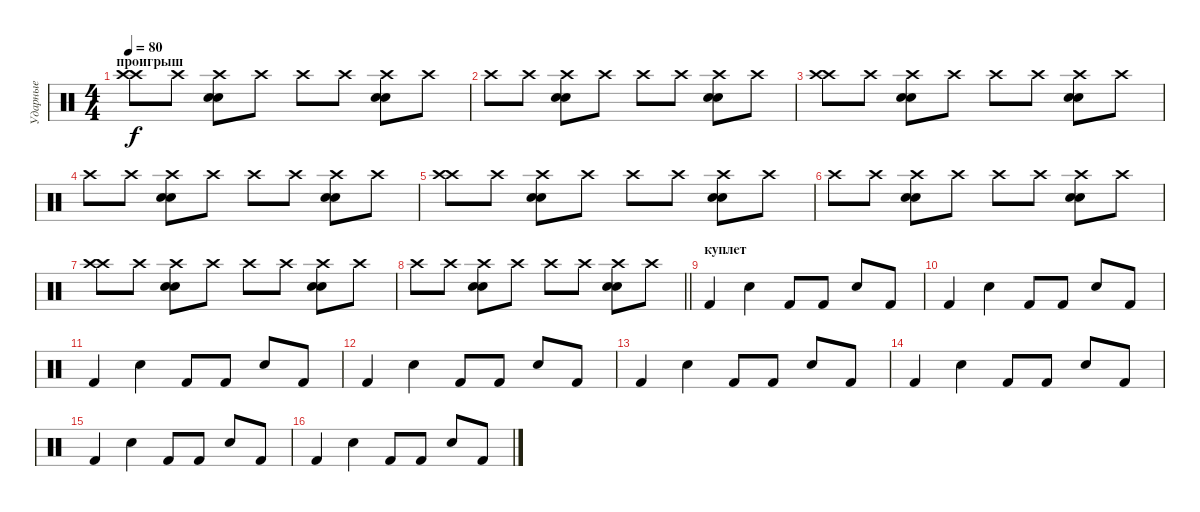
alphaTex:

\track ("Ударные" "Ударные") {instrument percussion}
\staff {score}
\articulation defaults
\ts (4 4)
\section ("" "проигрыш")
\tempo 80
\clef neutral
\ks c
("Crash high (hit)" "Crash high (hit)").8{dy f} "Crash high (hit)".8 ("Crash high (hit)" "Snare (hit) 2" "Hand Clap (hit)").8 "Crash high (hit)".8 "Crash high (hit)".8 "Crash high (hit)".8 ("Crash high (hit)" "Snare (hit) 2" "Hand Clap (hit)").8 "Crash high (hit)".8 |
"Crash high (hit)".8 "Crash high (hit)".8 ("Crash high (hit)" "Snare (hit) 2" "Hand Clap (hit)").8 "Crash high (hit)".8 "Crash high (hit)".8 "Crash high (hit)".8 ("Crash high (hit)" "Snare (hit) 2" "Hand Clap (hit)").8 "Crash high (hit)".8 |
("Crash high (hit)" "Crash high (hit)").8 "Crash high (hit)".8 ("Crash high (hit)" "Snare (hit) 2" "Hand Clap (hit)").8 "Crash high (hit)".8 "Crash high (hit)".8 "Crash high (hit)".8 ("Crash high (hit)" "Snare (hit) 2" "Hand Clap (hit)").8 "Crash high (hit)".8 |
"Crash high (hit)".8 "Crash high (hit)".8 ("Crash high (hit)" "Snare (hit) 2" "Hand Clap (hit)").8 "Crash high (hit)".8 "Crash high (hit)".8 "Crash high (hit)".8 ("Crash high (hit)" "Snare (hit) 2" "Hand Clap (hit)").8 "Crash high (hit)".8 |
("Crash high (hit)" "Crash high (hit)").8 "Crash high (hit)".8 ("Crash high (hit)" "Snare (hit) 2" "Hand Clap (hit)").8 "Crash high (hit)".8 "Crash high (hit)".8 "Crash high (hit)".8 ("Crash high (hit)" "Snare (hit) 2" "Hand Clap (hit)").8 "Crash high (hit)".8 |
"Crash high (hit)".8 "Crash high (hit)".8 ("Crash high (hit)" "Snare (hit) 2" "Hand Clap (hit)").8 "Crash high (hit)".8 "Crash high (hit)".8 "Crash high (hit)".8 ("Crash high (hit)" "Snare (hit) 2" "Hand Clap (hit)").8 "Crash high (hit)".8 |
("Crash high (hit)" "Crash high (hit)").8 "Crash high (hit)".8 ("Crash high (hit)" "Snare (hit) 2" "Hand Clap (hit)").8 "Crash high (hit)".8 "Crash high (hit)".8 "Crash high (hit)".8 ("Crash high (hit)" "Snare (hit) 2" "Hand Clap (hit)").8 "Crash high (hit)".8 |
\barLineRight lightlight "Crash high (hit)".8 "Crash high (hit)".8
("Crash high (hit)" "Snare (hit) 2" "Hand Clap (hit)").8 "Crash high (hit)".8 "Crash high (hit)".8 "Crash high (hit)".8 ("Crash high (hit)" "Snare (hit) 2" "Hand Clap (hit)").8 "Crash high (hit)".8 |
\section ("" "куплет ")
"Kick (hit) 2".4 "Snare (hit) 2".4 "Kick (hit) 2".8 "Kick (hit) 2".8 "Snare (hit) 2".8 "Kick (hit) 2".8 |
"Kick (hit) 2".4 "Snare (hit) 2".4 "Kick (hit) 2".8 "Kick (hit) 2".8 "Snare (hit) 2".8 "Kick (hit) 2".8 |
"Kick (hit) 2".4 "Snare (hit) 2".4 "Kick (hit) 2".8 "Kick (hit) 2".8 "Snare (hit) 2".8 "Kick (hit) 2".8 |
"Kick (hit) 2".4 "Snare (hit) 2".4 "Kick (hit) 2".8 "Kick (hit) 2".8 "Snare (hit) 2".8 "Kick (hit) 2".8 |
"Kick (hit) 2".4 "Snare (hit) 2".4 "Kick (hit) 2".8 "Kick (hit) 2".8 "Snare (hit) 2".8 "Kick (hit) 2".8 |
"Kick (hit) 2".4 "Snare (hit) 2".4 "Kick (hit) 2".8 "Kick (hit) 2".8 "Snare (hit) 2".8 "Kick (hit) 2".8 |
"Kick (hit) 2".4 "Snare (hit) 2".4 "Kick (hit) 2".8 "Kick (hit) 2".8 "Snare (hit) 2".8 "Kick (hit) 2".8 |
"Kick (hit) 2".4 "Snare (hit) 2".4 "Kick (hit) 2".8 "Kick (hit) 2".8 "Snare (hit) 2".8 "Kick (hit) 2".8
